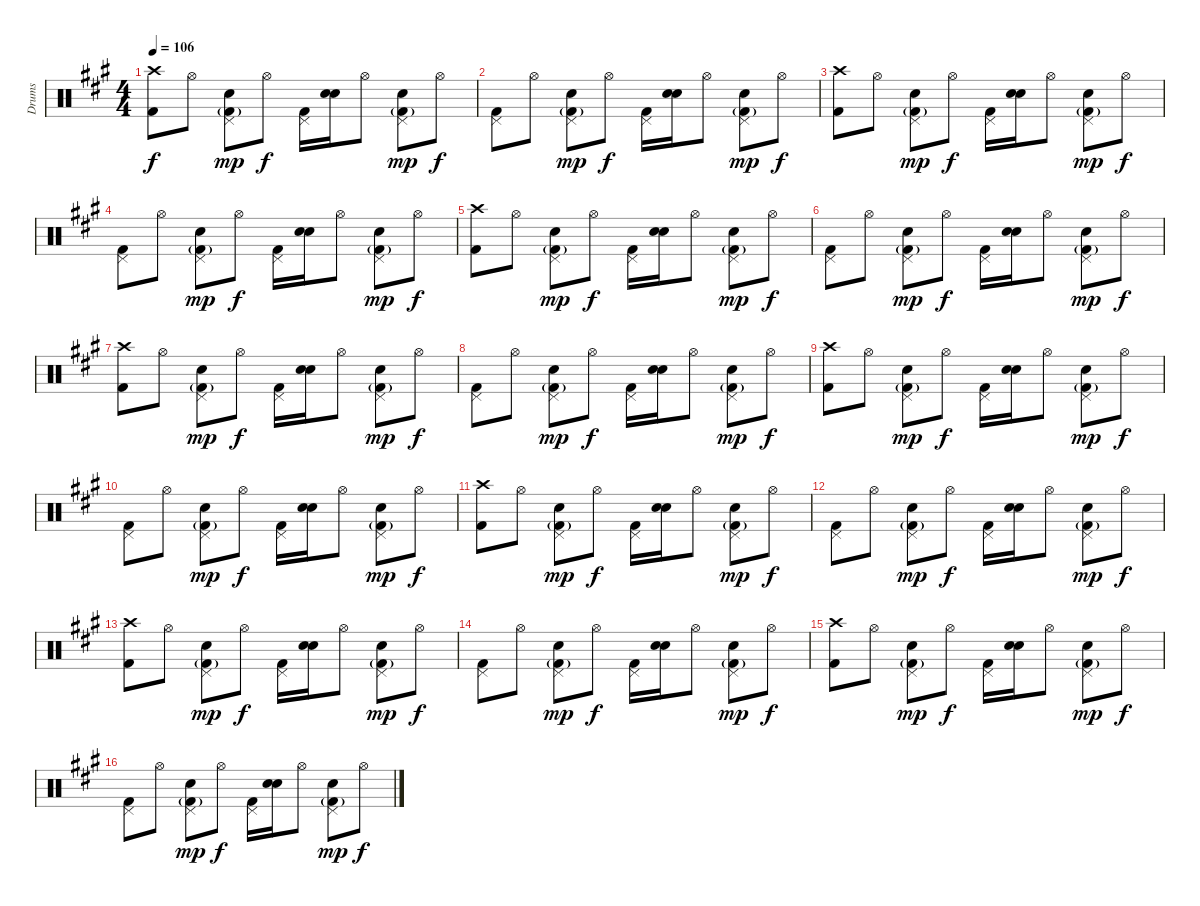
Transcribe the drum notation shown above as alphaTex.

\track ("Drums" "Drums") {instrument percussion}
\staff {score}
\articulation defaults
\ts (4 4)
\tempo 106
\clef neutral
\ks a
("Crash high (hit)" "Kick (hit) 2").8{dy f} "Hi-Hat (open)".8 ("Pedal Hi-Hat (hit)" "Electric Snare (hit)" "Kick (hit) 2"{g}).8{dy mp} "Hi-Hat (open)".8{dy f} ("Pedal Hi-Hat (hit)" "Kick (hit) 2").16 ("Snare (hit)"{x} "Electric Snare (hit)").16 "Hi-Hat (open)".8 ("Pedal Hi-Hat (hit)" "Electric Snare (hit)" "Kick (hit) 2"{g}).8{dy mp} "Hi-Hat (open)".8{dy f} |
("Pedal Hi-Hat (hit)" "Kick (hit) 2").8 "Hi-Hat (open)".8 ("Pedal Hi-Hat (hit)" "Electric Snare (hit)" "Kick (hit) 2"{g}).8{dy mp} "Hi-Hat (open)".8{dy f} ("Pedal Hi-Hat (hit)" "Kick (hit) 2").16 ("Snare (hit)"{x} "Electric Snare (hit)").16 "Hi-Hat (open)".8 ("Pedal Hi-Hat (hit)" "Electric Snare (hit)" "Kick (hit) 2"{g}).8{dy mp} "Hi-Hat (open)".8{dy f} |
("Crash high (hit)" "Kick (hit) 2").8 "Hi-Hat (open)".8 ("Pedal Hi-Hat (hit)" "Electric Snare (hit)" "Kick (hit) 2"{g}).8{dy mp} "Hi-Hat (open)".8{dy f} ("Pedal Hi-Hat (hit)" "Kick (hit) 2").16 ("Snare (hit)"{x} "Electric Snare (hit)").16 "Hi-Hat (open)".8 ("Pedal Hi-Hat (hit)" "Electric Snare (hit)" "Kick (hit) 2"{g}).8{dy mp} "Hi-Hat (open)".8{dy f} |
("Pedal Hi-Hat (hit)" "Kick (hit) 2").8 "Hi-Hat (open)".8 ("Pedal Hi-Hat (hit)" "Electric Snare (hit)" "Kick (hit) 2"{g}).8{dy mp} "Hi-Hat (open)".8{dy f} ("Pedal Hi-Hat (hit)" "Kick (hit) 2").16 ("Snare (hit)"{x} "Electric Snare (hit)").16 "Hi-Hat (open)".8 ("Pedal Hi-Hat (hit)" "Electric Snare (hit)" "Kick (hit) 2"{g}).8{dy mp} "Hi-Hat (open)".8{dy f} |
("Crash high (hit)" "Kick (hit) 2").8 "Hi-Hat (open)".8 ("Pedal Hi-Hat (hit)" "Electric Snare (hit)" "Kick (hit) 2"{g}).8{dy mp} "Hi-Hat (open)".8{dy f} ("Pedal Hi-Hat (hit)" "Kick (hit) 2").16 ("Snare (hit)"{x} "Electric Snare (hit)").16 "Hi-Hat (open)".8 ("Pedal Hi-Hat (hit)" "Electric Snare (hit)" "Kick (hit) 2"{g}).8{dy mp} "Hi-Hat (open)".8{dy f} |
("Pedal Hi-Hat (hit)" "Kick (hit) 2").8 "Hi-Hat (open)".8 ("Pedal Hi-Hat (hit)" "Electric Snare (hit)" "Kick (hit) 2"{g}).8{dy mp} "Hi-Hat (open)".8{dy f} ("Pedal Hi-Hat (hit)" "Kick (hit) 2").16 ("Snare (hit)"{x} "Electric Snare (hit)").16 "Hi-Hat (open)".8 ("Pedal Hi-Hat (hit)" "Electric Snare (hit)" "Kick (hit) 2"{g}).8{dy mp} "Hi-Hat (open)".8{dy f} |
("Crash high (hit)" "Kick (hit) 2").8 "Hi-Hat (open)".8 ("Pedal Hi-Hat (hit)" "Electric Snare (hit)" "Kick (hit) 2"{g}).8{dy mp} "Hi-Hat (open)".8{dy f} ("Pedal Hi-Hat (hit)" "Kick (hit) 2").16 ("Snare (hit)"{x} "Electric Snare (hit)").16 "Hi-Hat (open)".8 ("Pedal Hi-Hat (hit)" "Electric Snare (hit)" "Kick (hit) 2"{g}).8{dy mp} "Hi-Hat (open)".8{dy f} |
("Pedal Hi-Hat (hit)" "Kick (hit) 2").8 "Hi-Hat (open)".8 ("Pedal Hi-Hat (hit)" "Electric Snare (hit)" "Kick (hit) 2"{g}).8{dy mp} "Hi-Hat (open)".8{dy f} ("Pedal Hi-Hat (hit)" "Kick (hit) 2").16 ("Snare (hit)"{x} "Electric Snare (hit)").16 "Hi-Hat (open)".8 ("Pedal Hi-Hat (hit)" "Electric Snare (hit)" "Kick (hit) 2"{g}).8{dy mp} "Hi-Hat (open)".8{dy f} |
("Crash high (hit)" "Kick (hit) 2").8 "Hi-Hat (open)".8 ("Pedal Hi-Hat (hit)" "Electric Snare (hit)" "Kick (hit) 2"{g}).8{dy mp} "Hi-Hat (open)".8{dy f} ("Pedal Hi-Hat (hit)" "Kick (hit) 2").16 ("Snare (hit)"{x} "Electric Snare (hit)").16 "Hi-Hat (open)".8 ("Pedal Hi-Hat (hit)" "Electric Snare (hit)" "Kick (hit) 2"{g}).8{dy mp} "Hi-Hat (open)".8{dy f} |
("Pedal Hi-Hat (hit)" "Kick (hit) 2").8 "Hi-Hat (open)".8 ("Pedal Hi-Hat (hit)" "Electric Snare (hit)" "Kick (hit) 2"{g}).8{dy mp} "Hi-Hat (open)".8{dy f} ("Pedal Hi-Hat (hit)" "Kick (hit) 2").16 ("Snare (hit)"{x} "Electric Snare (hit)").16 "Hi-Hat (open)".8 ("Pedal Hi-Hat (hit)" "Electric Snare (hit)" "Kick (hit) 2"{g}).8{dy mp} "Hi-Hat (open)".8{dy f} |
("Crash high (hit)" "Kick (hit) 2").8 "Hi-Hat (open)".8 ("Pedal Hi-Hat (hit)" "Electric Snare (hit)" "Kick (hit) 2"{g}).8{dy mp} "Hi-Hat (open)".8{dy f} ("Pedal Hi-Hat (hit)" "Kick (hit) 2").16 ("Snare (hit)"{x} "Electric Snare (hit)").16 "Hi-Hat (open)".8 ("Pedal Hi-Hat (hit)" "Electric Snare (hit)" "Kick (hit) 2"{g}).8{dy mp} "Hi-Hat (open)".8{dy f} |
("Pedal Hi-Hat (hit)" "Kick (hit) 2").8 "Hi-Hat (open)".8 ("Pedal Hi-Hat (hit)" "Electric Snare (hit)" "Kick (hit) 2"{g}).8{dy mp} "Hi-Hat (open)".8{dy f} ("Pedal Hi-Hat (hit)" "Kick (hit) 2").16 ("Snare (hit)"{x} "Electric Snare (hit)").16 "Hi-Hat (open)".8 ("Pedal Hi-Hat (hit)" "Electric Snare (hit)" "Kick (hit) 2"{g}).8{dy mp} "Hi-Hat (open)".8{dy f} |
("Crash high (hit)" "Kick (hit) 2").8 "Hi-Hat (open)".8 ("Pedal Hi-Hat (hit)" "Electric Snare (hit)" "Kick (hit) 2"{g}).8{dy mp} "Hi-Hat (open)".8{dy f} ("Pedal Hi-Hat (hit)" "Kick (hit) 2").16 ("Snare (hit)"{x} "Electric Snare (hit)").16 "Hi-Hat (open)".8 ("Pedal Hi-Hat (hit)" "Electric Snare (hit)" "Kick (hit) 2"{g}).8{dy mp} "Hi-Hat (open)".8{dy f} |
("Pedal Hi-Hat (hit)" "Kick (hit) 2").8 "Hi-Hat (open)".8 ("Pedal Hi-Hat (hit)" "Electric Snare (hit)" "Kick (hit) 2"{g}).8{dy mp} "Hi-Hat (open)".8{dy f} ("Pedal Hi-Hat (hit)" "Kick (hit) 2").16 ("Snare (hit)"{x} "Electric Snare (hit)").16 "Hi-Hat (open)".8 ("Pedal Hi-Hat (hit)" "Electric Snare (hit)" "Kick (hit) 2"{g}).8{dy mp} "Hi-Hat (open)".8{dy f} |
("Crash high (hit)" "Kick (hit) 2").8 "Hi-Hat (open)".8 ("Pedal Hi-Hat (hit)" "Electric Snare (hit)" "Kick (hit) 2"{g}).8{dy mp} "Hi-Hat (open)".8{dy f} ("Pedal Hi-Hat (hit)" "Kick (hit) 2").16 ("Snare (hit)"{x} "Electric Snare (hit)").16 "Hi-Hat (open)".8 ("Pedal Hi-Hat (hit)" "Electric Snare (hit)" "Kick (hit) 2"{g}).8{dy mp} "Hi-Hat (open)".8{dy f} |
("Pedal Hi-Hat (hit)" "Kick (hit) 2").8 "Hi-Hat (open)".8 ("Pedal Hi-Hat (hit)" "Electric Snare (hit)" "Kick (hit) 2"{g}).8{dy mp} "Hi-Hat (open)".8{dy f} ("Pedal Hi-Hat (hit)" "Kick (hit) 2").16 ("Snare (hit)"{x} "Electric Snare (hit)").16 "Hi-Hat (open)".8 ("Pedal Hi-Hat (hit)" "Electric Snare (hit)" "Kick (hit) 2"{g}).8{dy mp} "Hi-Hat (open)".8{dy f}
